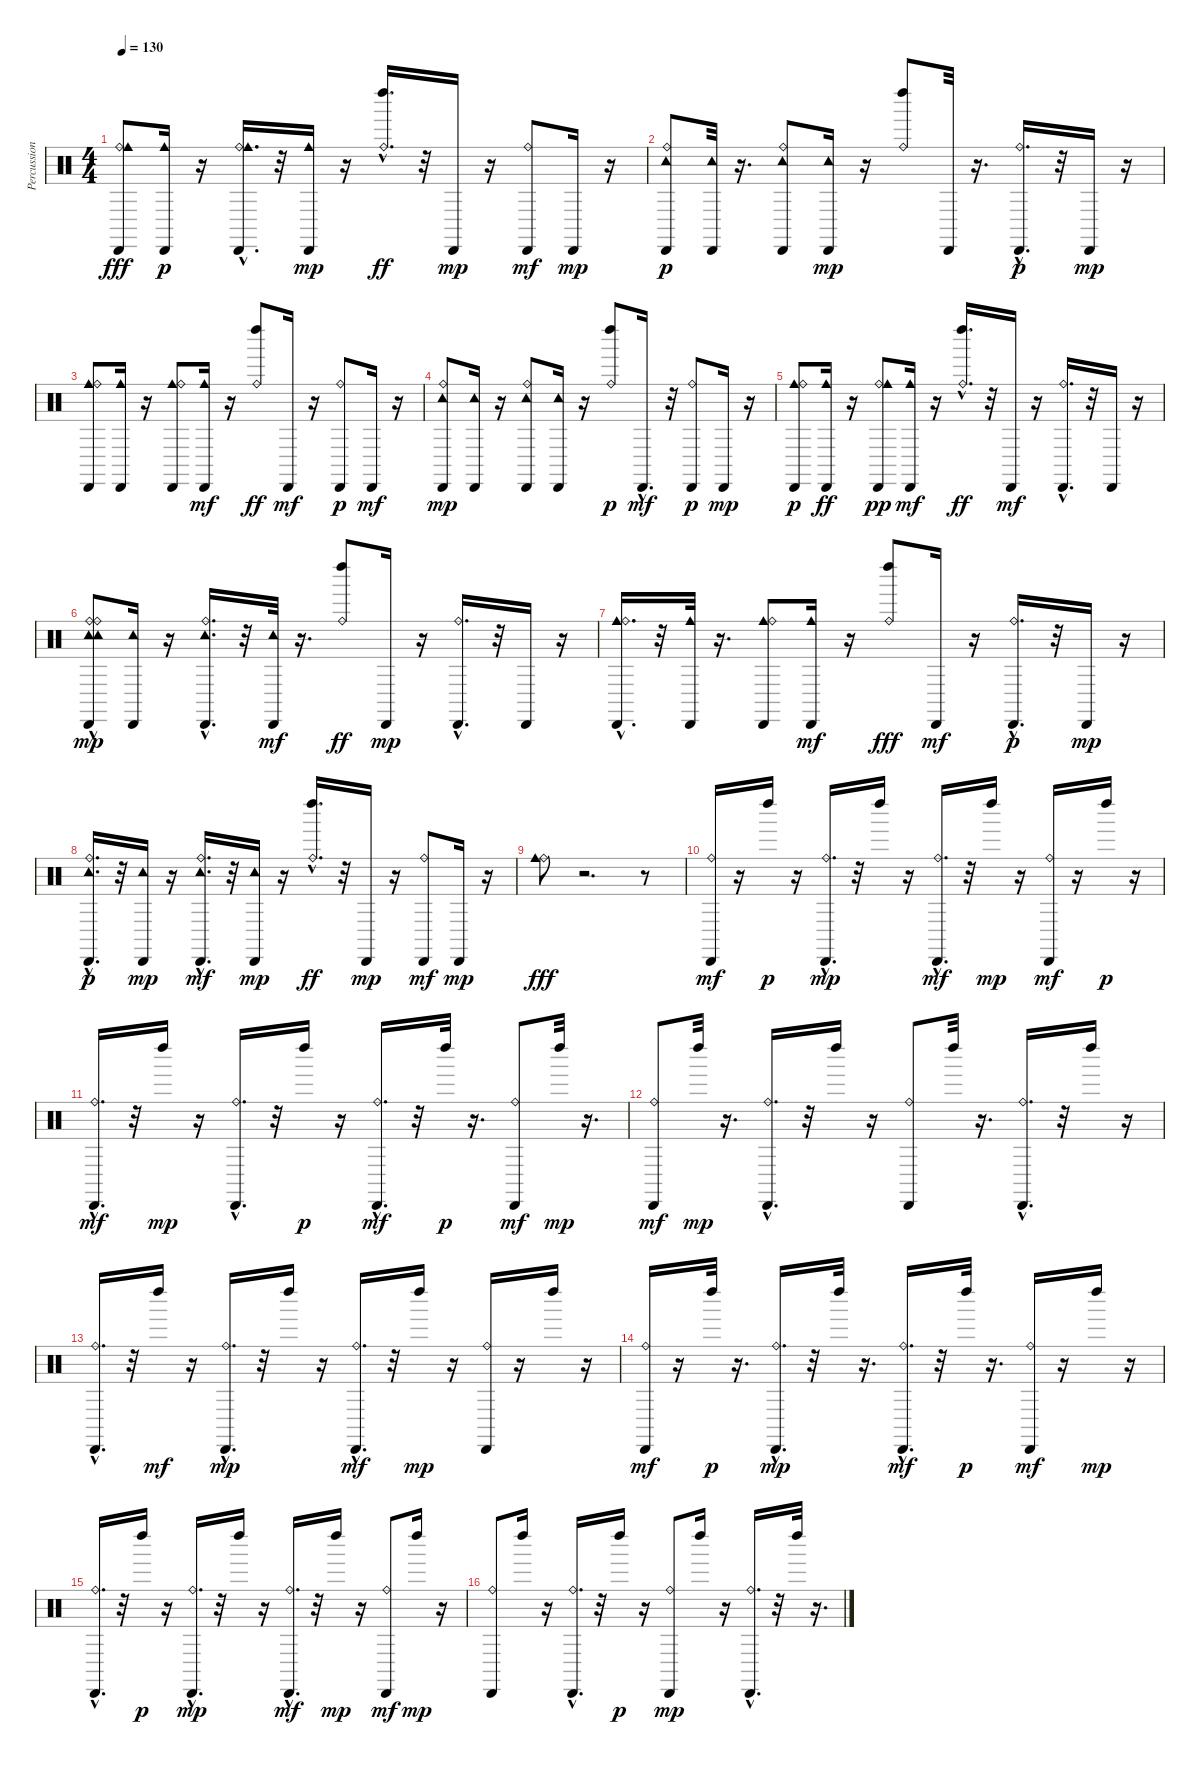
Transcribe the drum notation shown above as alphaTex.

\track ("Percussion" "Percussion") {instrument percussion}
\staff {score}
\articulation defaults
\ts (4 4)
\tempo 130
\clef neutral
\ks c
("Ride (bell)" "Cowbell medium (hit)" "Cabasa (hit)").8{dy fff} ("Cabasa (hit)" "Cowbell medium (hit)").16{dy p} r.16 ("Ride (bell)"{hac} "Cabasa (hit)" "Cowbell medium (hit)").16{d} r.32 ("Cowbell medium (hit)" "Cabasa (hit)").16{dy mp} r.16 ("Ride (bell)"{hac} "Left Maraca (hit)").16{d dy ff} r.32 "Cabasa (hit)".16{dy mp} r.16 ("Ride (bell)" "Cabasa (hit)").8{dy mf} "Cabasa (hit)".16{dy mp} r.16 |
("Tambourine (hit)" "Cabasa (hit)" "Ride (bell)").8{dy p} ("Tambourine (hit)" "Cabasa (hit)").32 r.16{d} ("Cabasa (hit)" "Tambourine (hit)" "Ride (bell)").8 ("Cabasa (hit)" "Tambourine (hit)").16{dy mp} r.16 ("Left Maraca (hit)" "Ride (bell)").8 "Cabasa (hit)".32 r.16{d} ("Cabasa (hit)" "Ride (bell)"{hac}).16{d dy p} r.32 "Cabasa (hit)".16{dy mp} r.16 |
("Cowbell medium (hit)" "Ride (bell)" "Cabasa (hit)").8 ("Cabasa (hit)" "Cowbell medium (hit)").16 r.16 ("Cabasa (hit)" "Cowbell medium (hit)" "Ride (bell)").8 ("Cowbell medium (hit)" "Cabasa (hit)").16{dy mf} r.16 ("Ride (bell)" "Left Maraca (hit)").8{dy ff} "Cabasa (hit)".16{dy mf} r.16 ("Cabasa (hit)" "Ride (bell)").8{dy p} "Cabasa (hit)".16{dy mf} r.16 |
("Tambourine (hit)" "Cabasa (hit)" "Ride (bell)").8{dy mp} ("Cabasa (hit)" "Tambourine (hit)").16 r.16 ("Cabasa (hit)" "Tambourine (hit)" "Ride (bell)").8 ("Tambourine (hit)" "Cabasa (hit)").16 r.16 ("Left Maraca (hit)" "Ride (bell)").8{dy p} "Cabasa (hit)"{hac}.16{d dy mf} r.32 ("Cabasa (hit)" "Ride (bell)").8{dy p} "Cabasa (hit)".16{dy mp} r.16 |
("Cowbell medium (hit)" "Cabasa (hit)" "Ride (bell)").8{dy p} ("Cabasa (hit)" "Cowbell medium (hit)").16{dy ff} r.16 ("Cabasa (hit)" "Ride (bell)" "Cowbell medium (hit)").8{dy pp} ("Cowbell medium (hit)" "Cabasa (hit)").16{dy mf} r.16 ("Ride (bell)"{hac} "Left Maraca (hit)").16{d dy ff} r.32 "Cabasa (hit)".16{dy mf} r.16 ("Ride (bell)"{hac} "Cabasa (hit)").16{d} r.32 "Cabasa (hit)".16 r.16 |
("Ride (bell)" "Tambourine (hit)" "Tambourine (hit)" "Cabasa (hit)" "Ride (bell)"{hac}).8{dy mp} ("Tambourine (hit)" "Cabasa (hit)").16 r.16 ("Tambourine (hit)" "Cabasa (hit)" "Ride (bell)"{hac}).16{d} r.32 ("Tambourine (hit)" "Cabasa (hit)").32{dy mf} r.16{d} ("Ride (bell)" "Left Maraca (hit)").8{dy ff} "Cabasa (hit)".16{dy mp} r.16 ("Ride (bell)"{hac} "Cabasa (hit)").16{d} r.32 "Cabasa (hit)".16 r.16 |
("Cowbell medium (hit)" "Cabasa (hit)" "Ride (bell)"{hac}).16{d} r.32 ("Cowbell medium (hit)" "Cabasa (hit)").32 r.16{d} ("Cowbell medium (hit)" "Cabasa (hit)" "Ride (bell)").8 ("Cowbell medium (hit)" "Cabasa (hit)").16{dy mf} r.16 ("Ride (bell)" "Left Maraca (hit)").8{dy fff} "Cabasa (hit)".16{dy mf} r.16 ("Cabasa (hit)" "Ride (bell)"{hac}).16{d dy p} r.32 "Cabasa (hit)".16{dy mp} r.16 |
("Tambourine (hit)" "Cabasa (hit)" "Ride (bell)"{hac}).16{d dy p} r.32 ("Tambourine (hit)" "Cabasa (hit)").16{dy mp} r.16 ("Ride (bell)"{hac} "Tambourine (hit)" "Cabasa (hit)").16{d dy mf} r.32 ("Tambourine (hit)" "Cabasa (hit)").16{dy mp} r.16 ("Ride (bell)"{hac} "Left Maraca (hit)").16{d dy ff} r.32 "Cabasa (hit)".16{dy mp} r.16 ("Ride (bell)" "Cabasa (hit)").8{dy mf} "Cabasa (hit)".16{dy mp} r.16 |
("Ride (bell)" "Cowbell medium (hit)").8{dy fff} r.2{d} r.8 |
("Ride (bell)" "Cabasa (hit)").16{dy mf} r.16 "Left Maraca (hit)".16{dy p} r.16 ("Ride (bell)"{hac} "Cabasa (hit)").16{d dy mp} r.32 "Left Maraca (hit)".16 r.16 ("Ride (bell)"{hac} "Cabasa (hit)").16{d dy mf} r.32 "Left Maraca (hit)".16{dy mp} r.16 ("Cabasa (hit)" "Ride (bell)").16{dy mf} r.16 "Left Maraca (hit)".16{dy p} r.16 |
("Ride (bell)"{hac} "Cabasa (hit)").16{d dy mf} r.32 "Left Maraca (hit)".16{dy mp} r.16 ("Cabasa (hit)" "Ride (bell)"{hac}).16{d} r.32 "Left Maraca (hit)".16{dy p} r.16 ("Cabasa (hit)" "Ride (bell)"{hac}).16{d dy mf} r.32 "Left Maraca (hit)".32{dy p} r.16{d} ("Cabasa (hit)" "Ride (bell)").8{dy mf} "Left Maraca (hit)".32{dy mp} r.16{d} |
("Ride (bell)" "Cabasa (hit)").8{dy mf} "Left Maraca (hit)".32{dy mp} r.16{d} ("Cabasa (hit)" "Ride (bell)"{hac}).16{d} r.32 "Left Maraca (hit)".16 r.16 ("Cabasa (hit)" "Ride (bell)").8 "Left Maraca (hit)".32 r.16{d} ("Cabasa (hit)" "Ride (bell)"{hac}).16{d} r.32 "Left Maraca (hit)".16 r.16 |
("Cabasa (hit)" "Ride (bell)"{hac}).16{d} r.32 "Left Maraca (hit)".16{dy mf} r.16 ("Cabasa (hit)" "Ride (bell)"{hac}).16{d dy mp} r.32 "Left Maraca (hit)".16 r.16 ("Ride (bell)"{hac} "Cabasa (hit)").16{d dy mf} r.32 "Left Maraca (hit)".16{dy mp} r.16 ("Cabasa (hit)" "Ride (bell)").16 r.16 "Left Maraca (hit)".16 r.16 |
("Cabasa (hit)" "Ride (bell)").16{dy mf} r.16 "Left Maraca (hit)".32{dy p} r.16{d} ("Cabasa (hit)" "Ride (bell)"{hac}).16{d dy mp} r.32 "Left Maraca (hit)".32 r.16{d} ("Cabasa (hit)" "Ride (bell)"{hac}).16{d dy mf} r.32 "Left Maraca (hit)".32{dy p} r.16{d} ("Cabasa (hit)" "Ride (bell)").16{dy mf} r.16 "Left Maraca (hit)".16{dy mp} r.16 |
("Cabasa (hit)" "Ride (bell)"{hac}).16{d} r.32 "Left Maraca (hit)".16{dy p} r.16 ("Cabasa (hit)" "Ride (bell)"{hac}).16{d dy mp} r.32 "Left Maraca (hit)".16 r.16 ("Cabasa (hit)" "Ride (bell)"{hac}).16{d dy mf} r.32 "Left Maraca (hit)".16{dy mp} r.16 ("Cabasa (hit)" "Ride (bell)").8{dy mf} "Left Maraca (hit)".16{dy mp} r.16 |
("Cabasa (hit)" "Ride (bell)").8 "Left Maraca (hit)".16 r.16 ("Cabasa (hit)" "Ride (bell)"{hac}).16{d} r.32 "Left Maraca (hit)".16{dy p} r.16 ("Cabasa (hit)" "Ride (bell)").8{dy mp} "Left Maraca (hit)".16 r.16 ("Cabasa (hit)" "Ride (bell)"{hac}).16{d} r.32 "Left Maraca (hit)".32 r.16{d}
